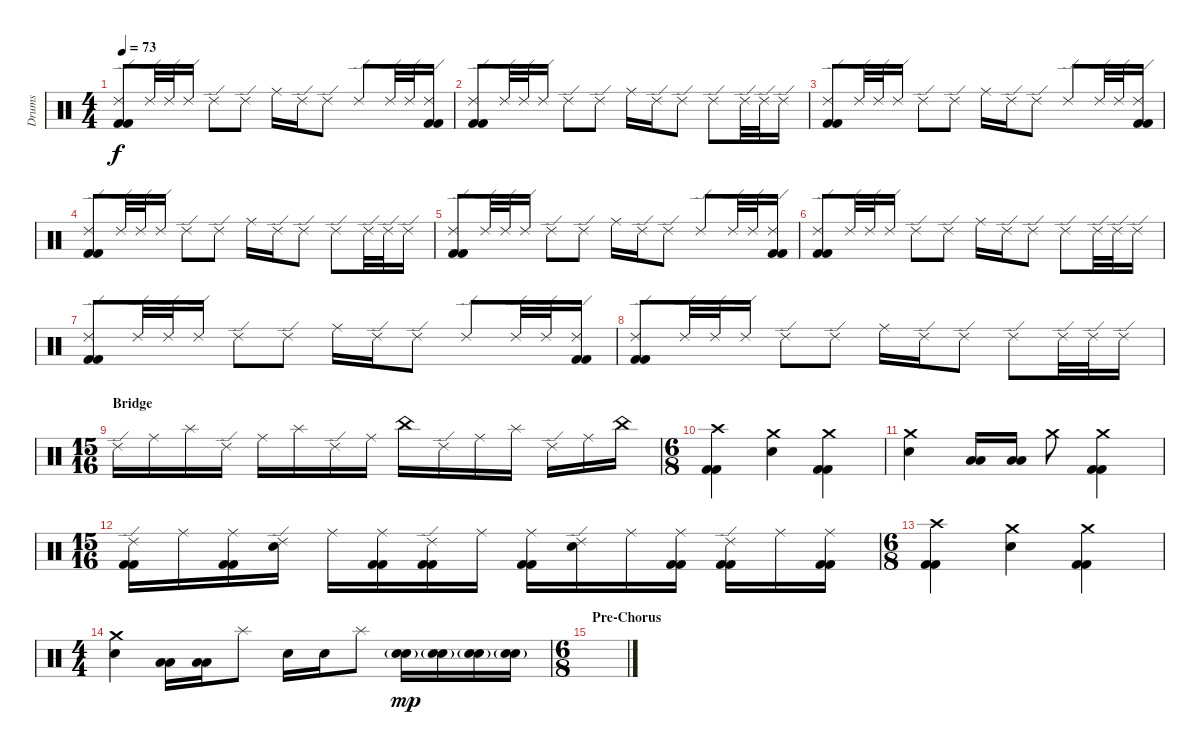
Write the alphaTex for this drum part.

\track ("Drums" "Drums") {instrument percussion}
\staff {score}
\articulation defaults
\ts (4 4)
\tempo 73
\clef neutral
\ks c
("Ride (edge) 2" "Kick (hit) 2" "Kick (hit) 2").8{dy f} "Ride (edge) 2".32 "Ride (edge) 2".32 "Ride (edge) 2".16 "Ride (edge) 2".8 "Ride (edge) 2".8 "Ride (middle)".16 "Ride (edge) 2".16 "Ride (edge) 2".8 "Ride (edge) 2".8 "Ride (edge) 2".32 "Ride (edge) 2".32 ("Ride (edge) 2" "Kick (hit) 2" "Kick (hit) 2").16 |
("Ride (edge) 2" "Kick (hit) 2" "Kick (hit) 2").8 "Ride (edge) 2".32 "Ride (edge) 2".32 "Ride (edge) 2".16 "Ride (edge) 2".8 "Ride (edge) 2".8 "Ride (middle)".16 "Ride (edge) 2".16 "Ride (edge) 2".8 "Ride (edge) 2".8 "Ride (edge) 2".32 "Ride (edge) 2".32 "Ride (edge) 2".16 |
("Ride (edge) 2" "Kick (hit) 2" "Kick (hit) 2").8 "Ride (edge) 2".32 "Ride (edge) 2".32 "Ride (edge) 2".16 "Ride (edge) 2".8 "Ride (edge) 2".8 "Ride (middle)".16 "Ride (edge) 2".16 "Ride (edge) 2".8 "Ride (edge) 2".8 "Ride (edge) 2".32 "Ride (edge) 2".32 ("Ride (edge) 2" "Kick (hit) 2" "Kick (hit) 2").16 |
("Ride (edge) 2" "Kick (hit) 2" "Kick (hit) 2").8 "Ride (edge) 2".32 "Ride (edge) 2".32 "Ride (edge) 2".16 "Ride (edge) 2".8 "Ride (edge) 2".8 "Ride (middle)".16 "Ride (edge) 2".16 "Ride (edge) 2".8 "Ride (edge) 2".8 "Ride (edge) 2".32 "Ride (edge) 2".32 "Ride (edge) 2".16 |
("Ride (edge) 2" "Kick (hit) 2" "Kick (hit) 2").8 "Ride (edge) 2".32 "Ride (edge) 2".32 "Ride (edge) 2".16 "Ride (edge) 2".8 "Ride (edge) 2".8 "Ride (middle)".16 "Ride (edge) 2".16 "Ride (edge) 2".8 "Ride (edge) 2".8 "Ride (edge) 2".32 "Ride (edge) 2".32 ("Ride (edge) 2" "Kick (hit) 2" "Kick (hit) 2").16 |
("Ride (edge) 2" "Kick (hit) 2" "Kick (hit) 2").8 "Ride (edge) 2".32 "Ride (edge) 2".32 "Ride (edge) 2".16 "Ride (edge) 2".8 "Ride (edge) 2".8 "Ride (middle)".16 "Ride (edge) 2".16 "Ride (edge) 2".8 "Ride (edge) 2".8 "Ride (edge) 2".32 "Ride (edge) 2".32 "Ride (edge) 2".16 |
("Ride (edge) 2" "Kick (hit) 2" "Kick (hit) 2").8 "Ride (edge) 2".32 "Ride (edge) 2".32 "Ride (edge) 2".16 "Ride (edge) 2".8 "Ride (edge) 2".8 "Ride (middle)".16 "Ride (edge) 2".16 "Ride (edge) 2".8 "Ride (edge) 2".8 "Ride (edge) 2".32 "Ride (edge) 2".32 ("Ride (edge) 2" "Kick (hit) 2" "Kick (hit) 2").16 |
("Ride (edge) 2" "Kick (hit) 2" "Kick (hit) 2").8 "Ride (edge) 2".32 "Ride (edge) 2".32 "Ride (edge) 2".16 "Ride (edge) 2".8 "Ride (edge) 2".8 "Ride (middle)".16 "Ride (edge) 2".16 "Ride (edge) 2".8 "Ride (edge) 2".8 "Ride (edge) 2".32 "Ride (edge) 2".32 "Ride (edge) 2".16 |
\ts (15 16)
\section ("" "Bridge")
"Ride (edge) 2".16 "Ride (middle)".16 "Splash (hit)".16 "Ride (edge) 2".16 "Ride (middle)".16 "Splash (hit)".16 "Ride (edge) 2".16 "Ride (middle)".16 "China (hit)".16 "Ride (edge) 2".16 "Ride (middle)".16 "Splash (hit)".16 "Ride (edge) 2".16 "Ride (middle)".16 "China (hit)".16 |
\ts (6 8)
("Crash high (hit)" "Kick (hit) 2" "Kick (hit) 2").4 ("Crash medium (hit)" "Snare (hit) 2").4 ("Crash medium (hit)" "Kick (hit) 2" "Kick (hit) 2").4 |
("Crash medium (hit)" "Snare (hit) 2").4 ("Low Floor Tom (hit)" "Low Floor Tom (hit)").16 ("Low Floor Tom (hit)" "Low Floor Tom (hit)").16 "Crash medium (hit)".8 ("Crash medium (hit)" "Kick (hit) 2" "Kick (hit) 2").4 |
\ts (15 16)
("Ride (edge) 2" "Kick (hit) 2" "Kick (hit) 2").16 "Ride (middle)".16 ("Ride (middle)" "Kick (hit) 2" "Kick (hit) 2").16 ("Ride (edge) 2" "Snare (hit) 2").16 "Ride (middle)".16 ("Ride (middle)" "Kick (hit) 2" "Kick (hit) 2").16 ("Ride (edge) 2" "Kick (hit) 2" "Kick (hit) 2").16 "Ride (middle)".16 ("Ride (middle)" "Kick (hit) 2" "Kick (hit) 2").16 ("Ride (edge) 2" "Snare (hit) 2").16 "Ride (middle)".16 ("Ride (middle)" "Kick (hit) 2" "Kick (hit) 2").16 ("Ride (edge) 2" "Kick (hit) 2" "Kick (hit) 2").16 "Ride (middle)".16 ("Ride (middle)" "Kick (hit) 2" "Kick (hit) 2").16 |
\ts (6 8)
("Crash high (hit)" "Kick (hit) 2" "Kick (hit) 2").4 ("Crash medium (hit)" "Snare (hit) 2").4 ("Crash medium (hit)" "Kick (hit) 2" "Kick (hit) 2").4 |
\ts (4 4)
("Crash medium (hit)" "Snare (hit) 2").4 ("Low Floor Tom (hit)" "Low Floor Tom (hit)").16 ("Low Floor Tom (hit)" "Low Floor Tom (hit)").16 "Splash (hit)".8 "Snare (hit) 2".16 "Snare (hit) 2".16 "Splash (hit)".8 ("Electric Snare (hit)"{g} "Electric Snare (hit)"{g}).16{dy mp} ("Electric Snare (hit)"{g} "Electric Snare (hit)"{g}).16 ("Electric Snare (hit)"{g} "Electric Snare (hit)"{g}).16 ("Electric Snare (hit)"{g} "Electric Snare (hit)"{g}).16 |
\ts (6 8)
\section ("" "Pre-Chorus")
